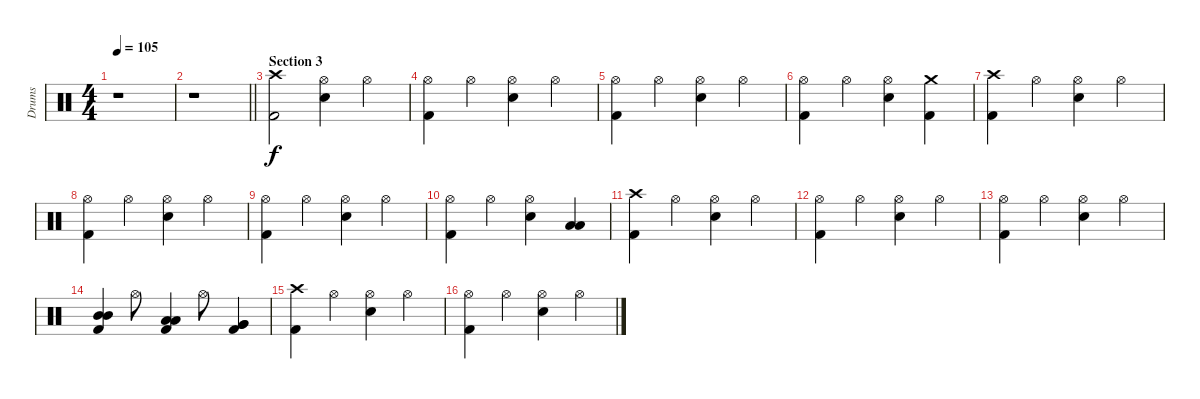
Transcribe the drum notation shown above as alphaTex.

\track ("Drums" "Drums") {instrument percussion}
\staff {score}
\articulation defaults
\ts (4 4)
\tempo 105
\clef neutral
\ks c
r.1{dy f} |
\barLineRight lightlight
r.1 |
\section ("" "Section 3")
("Crash high (hit)" "Kick (hit) 2").2 ("Hi-Hat (open)" "Electric Snare (hit)").4 "Hi-Hat (open)".4 |
("Hi-Hat (open)" "Kick (hit) 2").4 "Hi-Hat (open)".4 ("Hi-Hat (open)" "Electric Snare (hit)").4 "Hi-Hat (open)".4 |
("Hi-Hat (open)" "Kick (hit) 2").4 "Hi-Hat (open)".4 ("Hi-Hat (open)" "Electric Snare (hit)").4 "Hi-Hat (open)".4 |
("Hi-Hat (open)" "Kick (hit) 2").4 "Hi-Hat (open)".4 ("Hi-Hat (open)" "Electric Snare (hit)").4 ("Crash medium (hit)" "Kick (hit) 2").4 |
("Crash high (hit)" "Kick (hit) 2").4 "Hi-Hat (open)".4 ("Hi-Hat (open)" "Electric Snare (hit)").4 "Hi-Hat (open)".4 |
("Hi-Hat (open)" "Kick (hit) 2").4 "Hi-Hat (open)".4 ("Hi-Hat (open)" "Electric Snare (hit)").4 "Hi-Hat (open)".4 |
("Hi-Hat (open)" "Kick (hit) 2").4 "Hi-Hat (open)".4 ("Hi-Hat (open)" "Electric Snare (hit)").4 "Hi-Hat (open)".4 |
("Hi-Hat (open)" "Kick (hit) 2").4 "Hi-Hat (open)".4 ("Hi-Hat (open)" "Electric Snare (hit)").4 ("Low Tom (hit)" "Low Tom (hit)").4{bu 60} |
("Crash high (hit)" "Kick (hit) 2").4 "Hi-Hat (open)".4 ("Hi-Hat (open)" "Electric Snare (hit)").4 "Hi-Hat (open)".4 |
("Hi-Hat (open)" "Kick (hit) 2").4 "Hi-Hat (open)".4 ("Hi-Hat (open)" "Electric Snare (hit)").4 "Hi-Hat (open)".4 |
("Hi-Hat (open)" "Kick (hit) 2").4 "Hi-Hat (open)".4 ("Hi-Hat (open)" "Electric Snare (hit)").4 "Hi-Hat (open)".4 |
("Mid Tom (hit)" "Mid Tom (hit)" "Kick (hit) 2").4{bu 60} "Hi-Hat (open)".8 ("Low Tom (hit)" "Low Tom (hit)" "Kick (hit) 2").4{bu 60} "Hi-Hat (open)".8 ("Very Low Tom (hit)" "Very Low Tom (hit)" "Kick (hit) 2").4{bu 60} |
("Crash high (hit)" "Kick (hit) 2").4 "Hi-Hat (open)".4 ("Hi-Hat (open)" "Electric Snare (hit)").4 "Hi-Hat (open)".4 |
("Hi-Hat (open)" "Kick (hit) 2").4 "Hi-Hat (open)".4 ("Hi-Hat (open)" "Electric Snare (hit)").4 "Hi-Hat (open)".4
